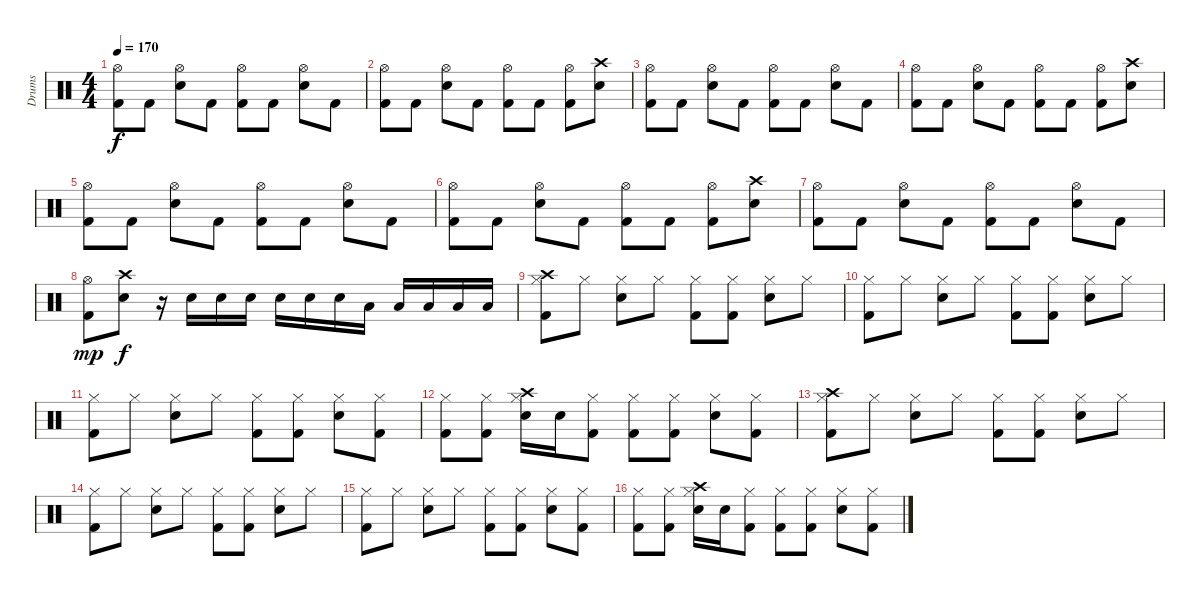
\track ("Drums" "Drums") {instrument percussion}
\staff {score}
\articulation defaults
\ts (4 4)
\tempo 170
\clef neutral
\ks c
("Hi-Hat (open)" "Kick (hit) 2").8{dy f} "Kick (hit) 2".8 ("Hi-Hat (open)" "Electric Snare (hit)").8 "Kick (hit) 2".8 ("Hi-Hat (open)" "Kick (hit) 2").8 "Kick (hit) 2".8 ("Hi-Hat (open)" "Electric Snare (hit)").8 "Kick (hit) 2".8 |
("Hi-Hat (open)" "Kick (hit) 2").8 "Kick (hit) 2".8 ("Hi-Hat (open)" "Electric Snare (hit)").8 "Kick (hit) 2".8 ("Hi-Hat (open)" "Kick (hit) 2").8 "Kick (hit) 2".8 ("Hi-Hat (open)" "Kick (hit) 2").8 ("Crash high (hit)" "Electric Snare (hit)").8 |
("Hi-Hat (open)" "Kick (hit) 2").8 "Kick (hit) 2".8 ("Hi-Hat (open)" "Electric Snare (hit)").8 "Kick (hit) 2".8 ("Hi-Hat (open)" "Kick (hit) 2").8 "Kick (hit) 2".8 ("Hi-Hat (open)" "Electric Snare (hit)").8 "Kick (hit) 2".8 |
("Hi-Hat (open)" "Kick (hit) 2").8 "Kick (hit) 2".8 ("Hi-Hat (open)" "Electric Snare (hit)").8 "Kick (hit) 2".8 ("Hi-Hat (open)" "Kick (hit) 2").8 "Kick (hit) 2".8 ("Hi-Hat (open)" "Kick (hit) 2").8 ("Crash high (hit)" "Electric Snare (hit)").8 |
("Hi-Hat (open)" "Kick (hit) 2").8 "Kick (hit) 2".8 ("Hi-Hat (open)" "Electric Snare (hit)").8 "Kick (hit) 2".8 ("Hi-Hat (open)" "Kick (hit) 2").8 "Kick (hit) 2".8 ("Hi-Hat (open)" "Electric Snare (hit)").8 "Kick (hit) 2".8 |
("Hi-Hat (open)" "Kick (hit) 2").8 "Kick (hit) 2".8 ("Hi-Hat (open)" "Electric Snare (hit)").8 "Kick (hit) 2".8 ("Hi-Hat (open)" "Kick (hit) 2").8 "Kick (hit) 2".8 ("Hi-Hat (open)" "Kick (hit) 2").8 ("Crash high (hit)" "Electric Snare (hit)").8 |
("Hi-Hat (open)" "Kick (hit) 2").8 "Kick (hit) 2".8 ("Hi-Hat (open)" "Electric Snare (hit)").8 "Kick (hit) 2".8 ("Hi-Hat (open)" "Kick (hit) 2").8 "Kick (hit) 2".8 ("Hi-Hat (open)" "Electric Snare (hit)").8 "Kick (hit) 2".8 |
("Hi-Hat (open)" "Kick (hit) 2").8{dy mp} ("Crash high (hit)" "Snare (hit) 2").8{dy f} r.16 "Snare (hit) 2".16 "Snare (hit) 2".16 "Snare (hit) 2".16 "Snare (hit) 2".16 "Snare (hit) 2".16 "Snare (hit) 2".16 "Low Floor Tom (hit)".16 "Low Floor Tom (hit)".16 "Low Floor Tom (hit)".16 "Low Floor Tom (hit)".16 "Low Floor Tom (hit)".16 |
("Crash high (hit)" "Hi-Hat (closed)" "Kick (hit) 2").8 "Hi-Hat (closed)".8 ("Hi-Hat (closed)" "Electric Snare (hit)").8 "Hi-Hat (closed)".8 ("Hi-Hat (closed)" "Kick (hit) 2").8 ("Hi-Hat (closed)" "Kick (hit) 2").8 ("Hi-Hat (closed)" "Electric Snare (hit)").8 "Hi-Hat (closed)".8 |
("Hi-Hat (closed)" "Kick (hit) 2").8 "Hi-Hat (closed)".8 ("Hi-Hat (closed)" "Electric Snare (hit)").8 "Hi-Hat (closed)".8 ("Hi-Hat (closed)" "Kick (hit) 2").8 ("Hi-Hat (closed)" "Kick (hit) 2").8 ("Hi-Hat (closed)" "Electric Snare (hit)").8 "Hi-Hat (closed)".8 |
("Hi-Hat (closed)" "Kick (hit) 2").8 "Hi-Hat (closed)".8 ("Hi-Hat (closed)" "Electric Snare (hit)").8 "Hi-Hat (closed)".8 ("Hi-Hat (closed)" "Kick (hit) 2").8 ("Hi-Hat (closed)" "Kick (hit) 2").8 ("Hi-Hat (closed)" "Electric Snare (hit)").8 ("Hi-Hat (closed)" "Kick (hit) 2").8 |
("Hi-Hat (closed)" "Kick (hit) 2").8 ("Hi-Hat (closed)" "Kick (hit) 2").8 ("Crash high (hit)" "Hi-Hat (closed)" "Electric Snare (hit)").16 "Electric Snare (hit)".16 ("Hi-Hat (closed)" "Kick (hit) 2").8 ("Hi-Hat (closed)" "Kick (hit) 2").8 ("Hi-Hat (closed)" "Kick (hit) 2").8 ("Hi-Hat (closed)" "Electric Snare (hit)").8 ("Hi-Hat (closed)" "Kick (hit) 2").8 |
("Crash high (hit)" "Hi-Hat (closed)" "Kick (hit) 2").8 "Hi-Hat (closed)".8 ("Hi-Hat (closed)" "Electric Snare (hit)").8 "Hi-Hat (closed)".8 ("Hi-Hat (closed)" "Kick (hit) 2").8 ("Hi-Hat (closed)" "Kick (hit) 2").8 ("Hi-Hat (closed)" "Electric Snare (hit)").8 "Hi-Hat (closed)".8 |
("Hi-Hat (closed)" "Kick (hit) 2").8 "Hi-Hat (closed)".8 ("Hi-Hat (closed)" "Electric Snare (hit)").8 "Hi-Hat (closed)".8 ("Hi-Hat (closed)" "Kick (hit) 2").8 ("Hi-Hat (closed)" "Kick (hit) 2").8 ("Hi-Hat (closed)" "Electric Snare (hit)").8 "Hi-Hat (closed)".8 |
("Hi-Hat (closed)" "Kick (hit) 2").8 "Hi-Hat (closed)".8 ("Hi-Hat (closed)" "Electric Snare (hit)").8 "Hi-Hat (closed)".8 ("Hi-Hat (closed)" "Kick (hit) 2").8 ("Hi-Hat (closed)" "Kick (hit) 2").8 ("Hi-Hat (closed)" "Electric Snare (hit)").8 ("Hi-Hat (closed)" "Kick (hit) 2").8 |
("Hi-Hat (closed)" "Kick (hit) 2").8 ("Hi-Hat (closed)" "Kick (hit) 2").8 ("Crash high (hit)" "Hi-Hat (closed)" "Electric Snare (hit)").16 "Electric Snare (hit)".16 ("Hi-Hat (closed)" "Kick (hit) 2").8 ("Hi-Hat (closed)" "Kick (hit) 2").8 ("Hi-Hat (closed)" "Kick (hit) 2").8 ("Hi-Hat (closed)" "Electric Snare (hit)").8 ("Hi-Hat (closed)" "Kick (hit) 2").8
